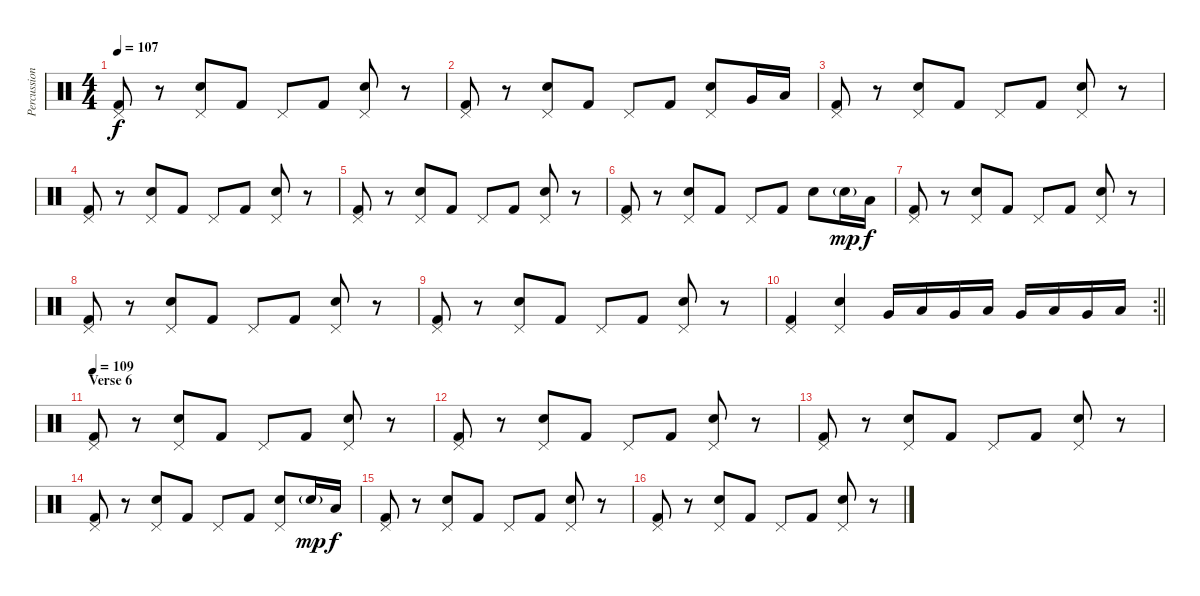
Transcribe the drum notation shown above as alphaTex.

\track ("Percussion" "Percussion") {instrument percussion}
\staff {score}
\articulation defaults
\ts (4 4)
\tempo 107
\clef neutral
\ks c
("Pedal Hi-Hat (hit)" "Kick (hit) 2").8{dy f} r.8 ("Pedal Hi-Hat (hit)" "Snare (hit) 2").8 "Kick (hit) 2".8 "Pedal Hi-Hat (hit)".8 "Kick (hit) 2".8 ("Pedal Hi-Hat (hit)" "Snare (hit) 2").8 r.8 |
("Pedal Hi-Hat (hit)" "Kick (hit) 2").8 r.8 ("Pedal Hi-Hat (hit)" "Snare (hit) 2").8 "Kick (hit) 2".8 "Pedal Hi-Hat (hit)".8 "Kick (hit) 2".8 ("Pedal Hi-Hat (hit)" "Snare (hit) 2").8 "Very Low Tom (hit)".16{balance 0} "Low Floor Tom (hit)".16{balance 16} |
("Pedal Hi-Hat (hit)" "Kick (hit) 2").8{balance 8} r.8 ("Pedal Hi-Hat (hit)" "Snare (hit) 2").8 "Kick (hit) 2".8 "Pedal Hi-Hat (hit)".8 "Kick (hit) 2".8 ("Pedal Hi-Hat (hit)" "Snare (hit) 2").8 r.8 |
("Pedal Hi-Hat (hit)" "Kick (hit) 2").8 r.8 ("Pedal Hi-Hat (hit)" "Snare (hit) 2").8 "Kick (hit) 2".8 "Pedal Hi-Hat (hit)".8 "Kick (hit) 2".8 ("Pedal Hi-Hat (hit)" "Snare (hit) 2").8 r.8 |
("Pedal Hi-Hat (hit)" "Kick (hit) 2").8{balance 8} r.8 ("Pedal Hi-Hat (hit)" "Snare (hit) 2").8 "Kick (hit) 2".8 "Pedal Hi-Hat (hit)".8 "Kick (hit) 2".8 ("Pedal Hi-Hat (hit)" "Snare (hit) 2").8 r.8 |
("Pedal Hi-Hat (hit)" "Kick (hit) 2").8{balance 8} r.8 ("Pedal Hi-Hat (hit)" "Snare (hit) 2").8 "Kick (hit) 2".8 "Pedal Hi-Hat (hit)".8 "Kick (hit) 2".8 "Snare (hit) 2".8 "Snare (hit) 2"{g}.16{dy mp} "Low Floor Tom (hit)".16{dy f balance 16} |
("Pedal Hi-Hat (hit)" "Kick (hit) 2").8{balance 8} r.8 ("Pedal Hi-Hat (hit)" "Snare (hit) 2").8 "Kick (hit) 2".8 "Pedal Hi-Hat (hit)".8 "Kick (hit) 2".8 ("Pedal Hi-Hat (hit)" "Snare (hit) 2").8 r.8 |
("Pedal Hi-Hat (hit)" "Kick (hit) 2").8 r.8 ("Pedal Hi-Hat (hit)" "Snare (hit) 2").8 "Kick (hit) 2".8 "Pedal Hi-Hat (hit)".8 "Kick (hit) 2".8 ("Pedal Hi-Hat (hit)" "Snare (hit) 2").8 r.8 |
("Pedal Hi-Hat (hit)" "Kick (hit) 2").8 r.8 ("Pedal Hi-Hat (hit)" "Snare (hit) 2").8 "Kick (hit) 2".8 "Pedal Hi-Hat (hit)".8 "Kick (hit) 2".8 ("Pedal Hi-Hat (hit)" "Snare (hit) 2").8 r.8 |
\rc 2
\barLineRight lightlight
("Pedal Hi-Hat (hit)" "Kick (hit) 2").4 ("Pedal Hi-Hat (hit)" "Snare (hit) 2").4 "Very Low Tom (hit)".16{volume 6} "Low Floor Tom (hit)".16{volume 7} "Very Low Tom (hit)".16{volume 8} "Low Floor Tom (hit)".16{volume 10} "Very Low Tom (hit)".16{volume 10} "Low Floor Tom (hit)".16 "Very Low Tom (hit)".16{volume 16} "Low Floor Tom (hit)".16 |
\section ("" "Verse 6")
\tempo 109
("Pedal Hi-Hat (hit)" "Kick (hit) 2").8 r.8 ("Pedal Hi-Hat (hit)" "Snare (hit) 2").8 "Kick (hit) 2".8 "Pedal Hi-Hat (hit)".8 "Kick (hit) 2".8 ("Pedal Hi-Hat (hit)" "Snare (hit) 2").8 r.8 |
("Pedal Hi-Hat (hit)" "Kick (hit) 2").8 r.8 ("Pedal Hi-Hat (hit)" "Snare (hit) 2").8 "Kick (hit) 2".8 "Pedal Hi-Hat (hit)".8 "Kick (hit) 2".8 ("Pedal Hi-Hat (hit)" "Snare (hit) 2").8 r.8 |
("Pedal Hi-Hat (hit)" "Kick (hit) 2").8 r.8 ("Pedal Hi-Hat (hit)" "Snare (hit) 2").8 "Kick (hit) 2".8 "Pedal Hi-Hat (hit)".8 "Kick (hit) 2".8 ("Pedal Hi-Hat (hit)" "Snare (hit) 2").8 r.8 |
("Pedal Hi-Hat (hit)" "Kick (hit) 2").8 r.8 ("Pedal Hi-Hat (hit)" "Snare (hit) 2").8 "Kick (hit) 2".8 "Pedal Hi-Hat (hit)".8 "Kick (hit) 2".8 ("Pedal Hi-Hat (hit)" "Snare (hit) 2").8 "Snare (hit) 2"{g}.16{dy mp} "Low Floor Tom (hit)".16{dy f balance 16} |
("Pedal Hi-Hat (hit)" "Kick (hit) 2").8{balance 8} r.8 ("Pedal Hi-Hat (hit)" "Snare (hit) 2").8 "Kick (hit) 2".8 "Pedal Hi-Hat (hit)".8 "Kick (hit) 2".8 ("Pedal Hi-Hat (hit)" "Snare (hit) 2").8 r.8 |
("Pedal Hi-Hat (hit)" "Kick (hit) 2").8 r.8 ("Pedal Hi-Hat (hit)" "Snare (hit) 2").8 "Kick (hit) 2".8 "Pedal Hi-Hat (hit)".8 "Kick (hit) 2".8 ("Pedal Hi-Hat (hit)" "Snare (hit) 2").8 r.8
